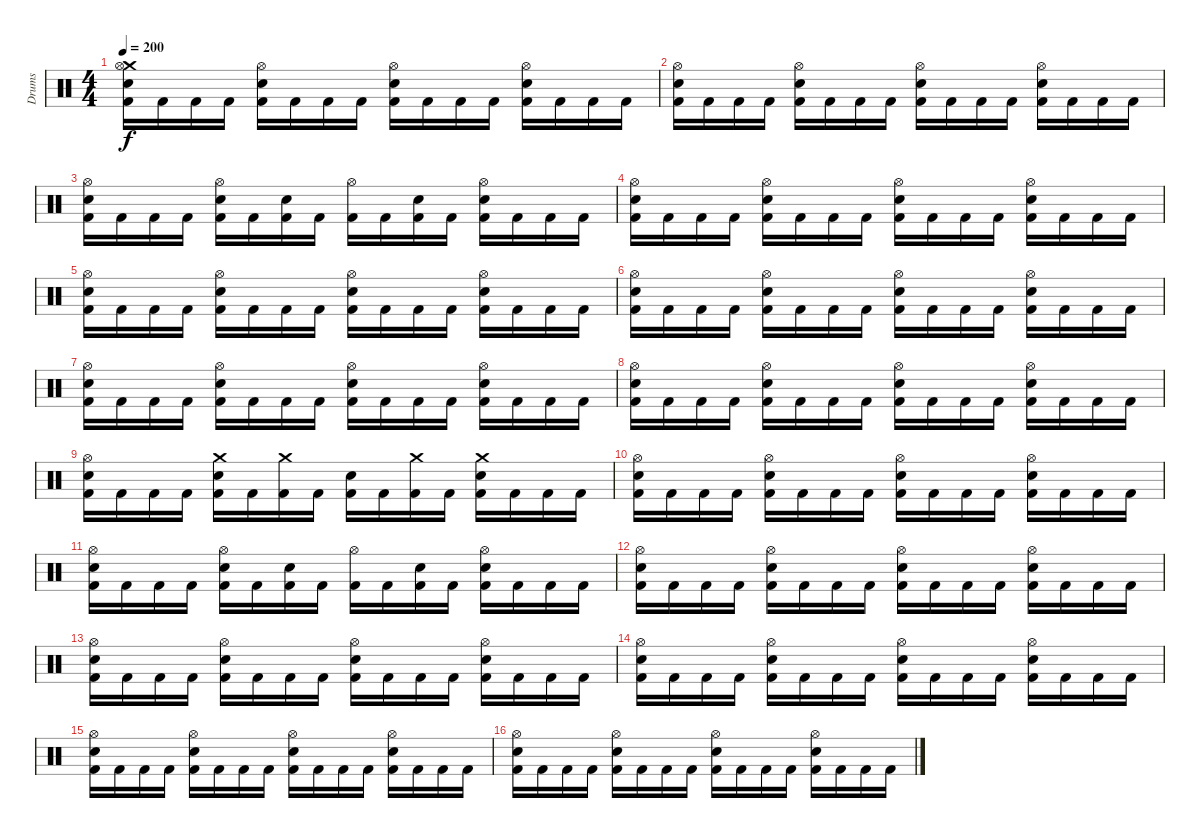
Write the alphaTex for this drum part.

\track ("Drums" "Drums") {instrument percussion}
\staff {score}
\articulation defaults
\ts (4 4)
\tempo 200
\clef neutral
\ks c
("Crash medium (hit)" "Hi-Hat (open)" "Snare (hit) 2" "Kick (hit) 2").16{dy f} "Kick (hit) 2".16 "Kick (hit) 2".16 "Kick (hit) 2".16 ("Hi-Hat (open)" "Snare (hit) 2" "Kick (hit) 2").16 "Kick (hit) 2".16 "Kick (hit) 2".16 "Kick (hit) 2".16 ("Hi-Hat (open)" "Snare (hit) 2" "Kick (hit) 2").16 "Kick (hit) 2".16 "Kick (hit) 2".16 "Kick (hit) 2".16 ("Hi-Hat (open)" "Snare (hit) 2" "Kick (hit) 2").16 "Kick (hit) 2".16 "Kick (hit) 2".16 "Kick (hit) 2".16 |
("Hi-Hat (open)" "Snare (hit) 2" "Kick (hit) 2").16 "Kick (hit) 2".16 "Kick (hit) 2".16 "Kick (hit) 2".16 ("Hi-Hat (open)" "Snare (hit) 2" "Kick (hit) 2").16 "Kick (hit) 2".16 "Kick (hit) 2".16 "Kick (hit) 2".16 ("Hi-Hat (open)" "Snare (hit) 2" "Kick (hit) 2").16 "Kick (hit) 2".16 "Kick (hit) 2".16 "Kick (hit) 2".16 ("Hi-Hat (open)" "Snare (hit) 2" "Kick (hit) 2").16 "Kick (hit) 2".16 "Kick (hit) 2".16 "Kick (hit) 2".16 |
("Hi-Hat (open)" "Snare (hit) 2" "Kick (hit) 2").16 "Kick (hit) 2".16 "Kick (hit) 2".16 "Kick (hit) 2".16 ("Hi-Hat (open)" "Snare (hit) 2" "Kick (hit) 2").16 "Kick (hit) 2".16 ("Snare (hit) 2" "Kick (hit) 2").16 "Kick (hit) 2".16 ("Hi-Hat (open)" "Kick (hit) 2").16 "Kick (hit) 2".16 ("Snare (hit) 2" "Kick (hit) 2").16 "Kick (hit) 2".16 ("Hi-Hat (open)" "Snare (hit) 2" "Kick (hit) 2").16 "Kick (hit) 2".16 "Kick (hit) 2".16 "Kick (hit) 2".16 |
("Hi-Hat (open)" "Snare (hit) 2" "Kick (hit) 2").16 "Kick (hit) 2".16 "Kick (hit) 2".16 "Kick (hit) 2".16 ("Hi-Hat (open)" "Snare (hit) 2" "Kick (hit) 2").16 "Kick (hit) 2".16 "Kick (hit) 2".16 "Kick (hit) 2".16 ("Hi-Hat (open)" "Snare (hit) 2" "Kick (hit) 2").16 "Kick (hit) 2".16 "Kick (hit) 2".16 "Kick (hit) 2".16 ("Hi-Hat (open)" "Snare (hit) 2" "Kick (hit) 2").16 "Kick (hit) 2".16 "Kick (hit) 2".16 "Kick (hit) 2".16 |
("Hi-Hat (open)" "Snare (hit) 2" "Kick (hit) 2").16 "Kick (hit) 2".16 "Kick (hit) 2".16 "Kick (hit) 2".16 ("Hi-Hat (open)" "Snare (hit) 2" "Kick (hit) 2").16 "Kick (hit) 2".16 "Kick (hit) 2".16 "Kick (hit) 2".16 ("Hi-Hat (open)" "Snare (hit) 2" "Kick (hit) 2").16 "Kick (hit) 2".16 "Kick (hit) 2".16 "Kick (hit) 2".16 ("Hi-Hat (open)" "Snare (hit) 2" "Kick (hit) 2").16 "Kick (hit) 2".16 "Kick (hit) 2".16 "Kick (hit) 2".16 |
("Hi-Hat (open)" "Snare (hit) 2" "Kick (hit) 2").16 "Kick (hit) 2".16 "Kick (hit) 2".16 "Kick (hit) 2".16 ("Hi-Hat (open)" "Snare (hit) 2" "Kick (hit) 2").16 "Kick (hit) 2".16 "Kick (hit) 2".16 "Kick (hit) 2".16 ("Hi-Hat (open)" "Snare (hit) 2" "Kick (hit) 2").16 "Kick (hit) 2".16 "Kick (hit) 2".16 "Kick (hit) 2".16 ("Hi-Hat (open)" "Snare (hit) 2" "Kick (hit) 2").16 "Kick (hit) 2".16 "Kick (hit) 2".16 "Kick (hit) 2".16 |
("Hi-Hat (open)" "Snare (hit) 2" "Kick (hit) 2").16 "Kick (hit) 2".16 "Kick (hit) 2".16 "Kick (hit) 2".16 ("Hi-Hat (open)" "Snare (hit) 2" "Kick (hit) 2").16 "Kick (hit) 2".16 "Kick (hit) 2".16 "Kick (hit) 2".16 ("Hi-Hat (open)" "Snare (hit) 2" "Kick (hit) 2").16 "Kick (hit) 2".16 "Kick (hit) 2".16 "Kick (hit) 2".16 ("Hi-Hat (open)" "Snare (hit) 2" "Kick (hit) 2").16 "Kick (hit) 2".16 "Kick (hit) 2".16 "Kick (hit) 2".16 |
("Hi-Hat (open)" "Snare (hit) 2" "Kick (hit) 2").16 "Kick (hit) 2".16 "Kick (hit) 2".16 "Kick (hit) 2".16 ("Hi-Hat (open)" "Snare (hit) 2" "Kick (hit) 2").16 "Kick (hit) 2".16 "Kick (hit) 2".16 "Kick (hit) 2".16 ("Hi-Hat (open)" "Snare (hit) 2" "Kick (hit) 2").16 "Kick (hit) 2".16 "Kick (hit) 2".16 "Kick (hit) 2".16 ("Hi-Hat (open)" "Snare (hit) 2" "Kick (hit) 2").16 "Kick (hit) 2".16 "Kick (hit) 2".16 "Kick (hit) 2".16 |
("Hi-Hat (open)" "Snare (hit) 2" "Kick (hit) 2").16 "Kick (hit) 2".16 "Kick (hit) 2".16 "Kick (hit) 2".16 ("Crash medium (hit)" "Snare (hit) 2" "Kick (hit) 2").16 "Kick (hit) 2".16 ("Crash medium (hit)" "Kick (hit) 2").16 "Kick (hit) 2".16 ("Snare (hit) 2" "Kick (hit) 2").16 "Kick (hit) 2".16 ("Crash medium (hit)" "Kick (hit) 2").16 "Kick (hit) 2".16 ("Crash medium (hit)" "Snare (hit) 2" "Kick (hit) 2").16 "Kick (hit) 2".16 "Kick (hit) 2".16 "Kick (hit) 2".16 |
("Hi-Hat (open)" "Snare (hit) 2" "Kick (hit) 2").16 "Kick (hit) 2".16 "Kick (hit) 2".16 "Kick (hit) 2".16 ("Hi-Hat (open)" "Snare (hit) 2" "Kick (hit) 2").16 "Kick (hit) 2".16 "Kick (hit) 2".16 "Kick (hit) 2".16 ("Hi-Hat (open)" "Snare (hit) 2" "Kick (hit) 2").16 "Kick (hit) 2".16 "Kick (hit) 2".16 "Kick (hit) 2".16 ("Hi-Hat (open)" "Snare (hit) 2" "Kick (hit) 2").16 "Kick (hit) 2".16 "Kick (hit) 2".16 "Kick (hit) 2".16 |
("Hi-Hat (open)" "Snare (hit) 2" "Kick (hit) 2").16 "Kick (hit) 2".16 "Kick (hit) 2".16 "Kick (hit) 2".16 ("Hi-Hat (open)" "Snare (hit) 2" "Kick (hit) 2").16 "Kick (hit) 2".16 ("Snare (hit) 2" "Kick (hit) 2").16 "Kick (hit) 2".16 ("Hi-Hat (open)" "Kick (hit) 2").16 "Kick (hit) 2".16 ("Snare (hit) 2" "Kick (hit) 2").16 "Kick (hit) 2".16 ("Hi-Hat (open)" "Snare (hit) 2" "Kick (hit) 2").16 "Kick (hit) 2".16 "Kick (hit) 2".16 "Kick (hit) 2".16 |
("Hi-Hat (open)" "Snare (hit) 2" "Kick (hit) 2").16 "Kick (hit) 2".16 "Kick (hit) 2".16 "Kick (hit) 2".16 ("Hi-Hat (open)" "Snare (hit) 2" "Kick (hit) 2").16 "Kick (hit) 2".16 "Kick (hit) 2".16 "Kick (hit) 2".16 ("Hi-Hat (open)" "Snare (hit) 2" "Kick (hit) 2").16 "Kick (hit) 2".16 "Kick (hit) 2".16 "Kick (hit) 2".16 ("Hi-Hat (open)" "Snare (hit) 2" "Kick (hit) 2").16 "Kick (hit) 2".16 "Kick (hit) 2".16 "Kick (hit) 2".16 |
("Hi-Hat (open)" "Snare (hit) 2" "Kick (hit) 2").16 "Kick (hit) 2".16 "Kick (hit) 2".16 "Kick (hit) 2".16 ("Hi-Hat (open)" "Snare (hit) 2" "Kick (hit) 2").16 "Kick (hit) 2".16 "Kick (hit) 2".16 "Kick (hit) 2".16 ("Hi-Hat (open)" "Snare (hit) 2" "Kick (hit) 2").16 "Kick (hit) 2".16 "Kick (hit) 2".16 "Kick (hit) 2".16 ("Hi-Hat (open)" "Snare (hit) 2" "Kick (hit) 2").16 "Kick (hit) 2".16 "Kick (hit) 2".16 "Kick (hit) 2".16 |
("Hi-Hat (open)" "Snare (hit) 2" "Kick (hit) 2").16 "Kick (hit) 2".16 "Kick (hit) 2".16 "Kick (hit) 2".16 ("Hi-Hat (open)" "Snare (hit) 2" "Kick (hit) 2").16 "Kick (hit) 2".16 "Kick (hit) 2".16 "Kick (hit) 2".16 ("Hi-Hat (open)" "Snare (hit) 2" "Kick (hit) 2").16 "Kick (hit) 2".16 "Kick (hit) 2".16 "Kick (hit) 2".16 ("Hi-Hat (open)" "Snare (hit) 2" "Kick (hit) 2").16 "Kick (hit) 2".16 "Kick (hit) 2".16 "Kick (hit) 2".16 |
("Hi-Hat (open)" "Snare (hit) 2" "Kick (hit) 2").16 "Kick (hit) 2".16 "Kick (hit) 2".16 "Kick (hit) 2".16 ("Hi-Hat (open)" "Snare (hit) 2" "Kick (hit) 2").16 "Kick (hit) 2".16 "Kick (hit) 2".16 "Kick (hit) 2".16 ("Hi-Hat (open)" "Snare (hit) 2" "Kick (hit) 2").16 "Kick (hit) 2".16 "Kick (hit) 2".16 "Kick (hit) 2".16 ("Hi-Hat (open)" "Snare (hit) 2" "Kick (hit) 2").16 "Kick (hit) 2".16 "Kick (hit) 2".16 "Kick (hit) 2".16 |
("Hi-Hat (open)" "Snare (hit) 2" "Kick (hit) 2").16 "Kick (hit) 2".16 "Kick (hit) 2".16 "Kick (hit) 2".16 ("Hi-Hat (open)" "Snare (hit) 2" "Kick (hit) 2").16 "Kick (hit) 2".16 "Kick (hit) 2".16 "Kick (hit) 2".16 ("Hi-Hat (open)" "Snare (hit) 2" "Kick (hit) 2").16 "Kick (hit) 2".16 "Kick (hit) 2".16 "Kick (hit) 2".16 ("Hi-Hat (open)" "Snare (hit) 2" "Kick (hit) 2").16 "Kick (hit) 2".16 "Kick (hit) 2".16 "Kick (hit) 2".16
